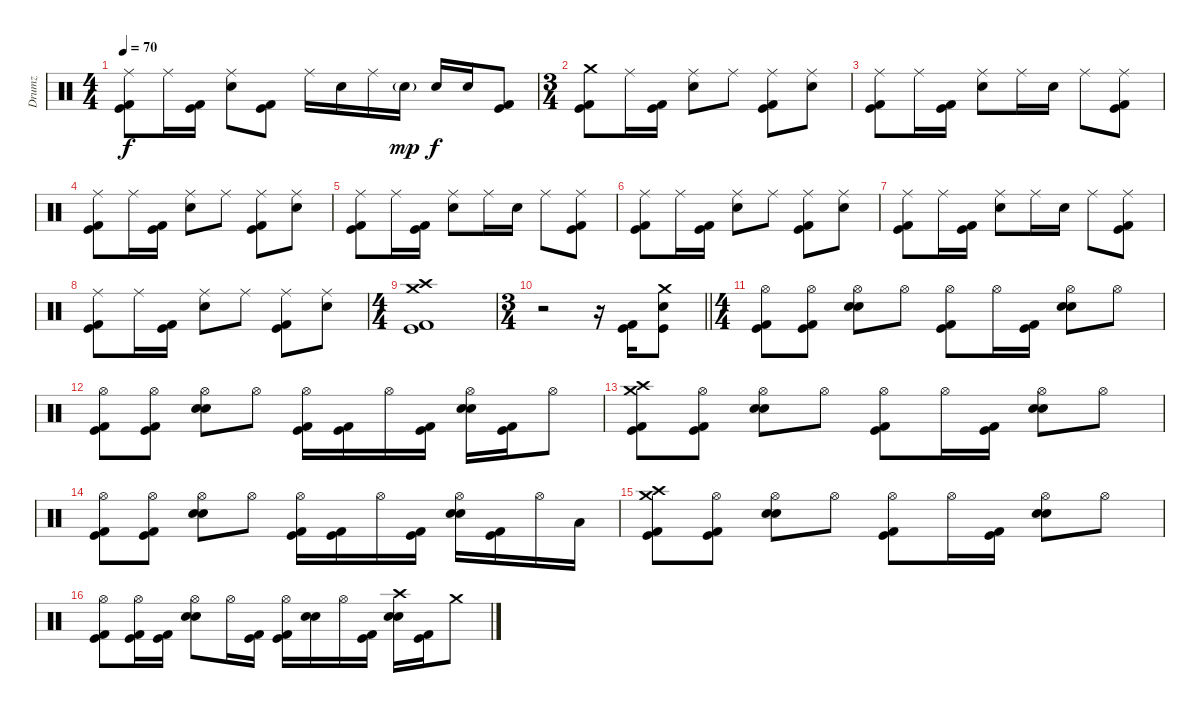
\track ("Drumz" "Drumz") {instrument percussion}
\staff {score}
\articulation defaults
\ts (4 4)
\tempo 70
\clef neutral
\ks c
("Ride (middle)" "Kick (hit)" "Kick (hit) 2").8{dy f} "Ride (middle)".16 ("Kick (hit)" "Kick (hit) 2").16 ("Ride (middle)" "Electric Snare (hit)").8 ("Kick (hit)" "Kick (hit) 2").8 "Ride (middle)".16 "Electric Snare (hit)".16 "Ride (middle)".16 "Electric Snare (hit)"{g}.16{dy mp} "Electric Snare (hit)".16{dy f} "Electric Snare (hit)".16 ("Kick (hit)" "Kick (hit) 2").8 |
\ts (3 4)
("Crash medium (hit)" "Kick (hit)" "Kick (hit) 2").8 "Ride (middle)".16 ("Kick (hit)" "Kick (hit) 2").16 ("Ride (middle)" "Electric Snare (hit)").8 "Ride (middle)".8 ("Ride (middle)" "Kick (hit)" "Kick (hit) 2").8 ("Ride (middle)" "Electric Snare (hit)").8 |
("Ride (middle)" "Kick (hit)" "Kick (hit) 2").8 "Ride (middle)".16 ("Kick (hit)" "Kick (hit) 2").16 ("Ride (middle)" "Electric Snare (hit)").8 "Ride (middle)".16 "Electric Snare (hit)".16 "Ride (middle)".8 ("Ride (middle)" "Kick (hit)" "Kick (hit) 2").8 |
("Ride (middle)" "Kick (hit)" "Kick (hit) 2").8 "Ride (middle)".16 ("Kick (hit)" "Kick (hit) 2").16 ("Ride (middle)" "Electric Snare (hit)").8 "Ride (middle)".8 ("Ride (middle)" "Kick (hit)" "Kick (hit) 2").8 ("Ride (middle)" "Electric Snare (hit)").8 |
("Ride (middle)" "Kick (hit)" "Kick (hit) 2").8 "Ride (middle)".16 ("Kick (hit)" "Kick (hit) 2").16 ("Ride (middle)" "Electric Snare (hit)").8 "Ride (middle)".16 "Electric Snare (hit)".16 "Ride (middle)".8 ("Ride (middle)" "Kick (hit)" "Kick (hit) 2").8 |
("Ride (middle)" "Kick (hit)" "Kick (hit) 2").8 "Ride (middle)".16 ("Kick (hit)" "Kick (hit) 2").16 ("Ride (middle)" "Electric Snare (hit)").8 "Ride (middle)".8 ("Ride (middle)" "Kick (hit)" "Kick (hit) 2").8 ("Ride (middle)" "Electric Snare (hit)").8 |
("Ride (middle)" "Kick (hit)" "Kick (hit) 2").8 "Ride (middle)".16 ("Kick (hit)" "Kick (hit) 2").16 ("Ride (middle)" "Electric Snare (hit)").8 "Ride (middle)".16 "Electric Snare (hit)".16 "Ride (middle)".8 ("Ride (middle)" "Kick (hit)" "Kick (hit) 2").8 |
("Ride (middle)" "Kick (hit)" "Kick (hit) 2").8 "Ride (middle)".16 ("Kick (hit)" "Kick (hit) 2").16 ("Ride (middle)" "Electric Snare (hit)").8 "Ride (middle)".8 ("Ride (middle)" "Kick (hit)" "Kick (hit) 2").8 ("Ride (middle)" "Electric Snare (hit)").8 |
\ts (4 4)
("Crash high (hit)" "Crash medium (hit)" "Kick (hit)" "Kick (hit) 2").1 |
\ts (3 4)
\barLineRight lightlight
r.2 r.16 ("Kick (hit) 2" "Kick (hit)").16 ("Crash medium (hit)" "Kick (hit)" "Electric Snare (hit)").8 |
\ts (4 4)
("Hi-Hat (open)" "Kick (hit) 2" "Kick (hit)").8 ("Hi-Hat (open)" "Kick (hit) 2" "Kick (hit)").8 ("Hi-Hat (open)" "Electric Snare (hit)" "Electric Snare (hit)").8 "Hi-Hat (open)".8 ("Hi-Hat (open)" "Kick (hit) 2" "Kick (hit)").8 "Hi-Hat (open)".16 ("Kick (hit) 2" "Kick (hit)").16 ("Hi-Hat (open)" "Electric Snare (hit)" "Electric Snare (hit)").8 "Hi-Hat (open)".8 |
("Hi-Hat (open)" "Kick (hit) 2" "Kick (hit)").8 ("Hi-Hat (open)" "Kick (hit) 2" "Kick (hit)").8 ("Hi-Hat (open)" "Electric Snare (hit)" "Electric Snare (hit)").8 "Hi-Hat (open)".8 ("Hi-Hat (open)" "Kick (hit) 2" "Kick (hit)").16 ("Kick (hit) 2" "Kick (hit)").16 "Hi-Hat (open)".16 ("Kick (hit) 2" "Kick (hit)").16 ("Hi-Hat (open)" "Electric Snare (hit)" "Electric Snare (hit)").16 ("Kick (hit) 2" "Kick (hit)").16 "Hi-Hat (open)".8 |
("Crash high (hit)" "Crash medium (hit)" "Kick (hit) 2" "Kick (hit)").8 ("Hi-Hat (open)" "Kick (hit) 2" "Kick (hit)").8 ("Hi-Hat (open)" "Electric Snare (hit)" "Electric Snare (hit)").8 "Hi-Hat (open)".8 ("Hi-Hat (open)" "Kick (hit) 2" "Kick (hit)").8 "Hi-Hat (open)".16 ("Kick (hit) 2" "Kick (hit)").16 ("Hi-Hat (open)" "Electric Snare (hit)" "Electric Snare (hit)").8 "Hi-Hat (open)".8 |
("Hi-Hat (open)" "Kick (hit) 2" "Kick (hit)").8 ("Hi-Hat (open)" "Kick (hit) 2" "Kick (hit)").8 ("Hi-Hat (open)" "Electric Snare (hit)" "Electric Snare (hit)").8 "Hi-Hat (open)".8 ("Hi-Hat (open)" "Kick (hit) 2" "Kick (hit)").16 ("Kick (hit) 2" "Kick (hit)").16 "Hi-Hat (open)".16 ("Kick (hit) 2" "Kick (hit)").16 ("Hi-Hat (open)" "Electric Snare (hit)" "Electric Snare (hit)").16 ("Kick (hit) 2" "Kick (hit)").16 "Hi-Hat (open)".16 "Low Floor Tom (hit)".16 |
("Crash high (hit)" "Crash medium (hit)" "Kick (hit) 2" "Kick (hit)").8 ("Hi-Hat (open)" "Kick (hit) 2" "Kick (hit)").8 ("Hi-Hat (open)" "Electric Snare (hit)" "Electric Snare (hit)").8 "Hi-Hat (open)".8 ("Hi-Hat (open)" "Kick (hit) 2" "Kick (hit)").8 "Hi-Hat (open)".16 ("Kick (hit) 2" "Kick (hit)").16 ("Hi-Hat (open)" "Electric Snare (hit)" "Electric Snare (hit)").8 "Hi-Hat (open)".8 |
("Hi-Hat (open)" "Kick (hit) 2" "Kick (hit)").8 ("Hi-Hat (open)" "Kick (hit) 2" "Kick (hit)").16 ("Kick (hit) 2" "Kick (hit)").16 ("Hi-Hat (open)" "Electric Snare (hit)" "Electric Snare (hit)").8 "Hi-Hat (open)".16 ("Kick (hit) 2" "Kick (hit)").16 ("Hi-Hat (open)" "Kick (hit)" "Kick (hit) 2").16 ("Electric Snare (hit)" "Electric Snare (hit)").16 "Hi-Hat (open)".16 ("Kick (hit)" "Kick (hit) 2").16 ("Crash high (hit)" "Electric Snare (hit)" "Electric Snare (hit)").16 ("Kick (hit) 2" "Kick (hit)").16 "Crash medium (hit)".8
